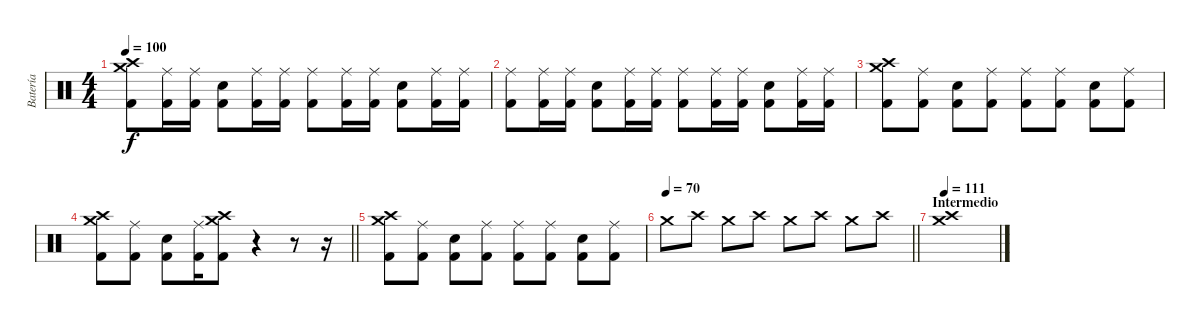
\track ("Batería" "Batería") {instrument percussion}
\staff {score}
\articulation defaults
\ts (4 4)
\tempo 100
\clef neutral
\ks c
("Crash medium (hit)" "Crash high (hit)" "Kick (hit) 2").8{dy f} ("Ride (middle)" "Kick (hit) 2").16 ("Ride (middle)" "Kick (hit) 2").16 ("Electric Snare (hit)" "Kick (hit) 2").8 ("Ride (middle)" "Kick (hit) 2").16 ("Ride (middle)" "Kick (hit) 2").16 ("Ride (middle)" "Kick (hit) 2").8 ("Ride (middle)" "Kick (hit) 2").16 ("Ride (middle)" "Kick (hit) 2").16 ("Electric Snare (hit)" "Kick (hit) 2").8 ("Ride (middle)" "Kick (hit) 2").16 ("Ride (middle)" "Kick (hit) 2").16 |
("Ride (middle)" "Kick (hit) 2").8 ("Ride (middle)" "Kick (hit) 2").16 ("Ride (middle)" "Kick (hit) 2").16 ("Electric Snare (hit)" "Kick (hit) 2").8 ("Ride (middle)" "Kick (hit) 2").16 ("Ride (middle)" "Kick (hit) 2").16 ("Ride (middle)" "Kick (hit) 2").8 ("Ride (middle)" "Kick (hit) 2").16 ("Ride (middle)" "Kick (hit) 2").16 ("Electric Snare (hit)" "Kick (hit) 2").8 ("Ride (middle)" "Kick (hit) 2").16 ("Ride (middle)" "Kick (hit) 2").16 |
("Crash medium (hit)" "Crash high (hit)" "Kick (hit) 2").8 ("Ride (middle)" "Kick (hit) 2").8 ("Electric Snare (hit)" "Kick (hit) 2").8 ("Ride (middle)" "Kick (hit) 2").8 ("Ride (middle)" "Kick (hit) 2").8 ("Ride (middle)" "Kick (hit) 2").8 ("Electric Snare (hit)" "Kick (hit) 2").8 ("Ride (middle)" "Kick (hit) 2").8 |
\barLineRight lightlight
("Crash medium (hit)" "Crash high (hit)" "Kick (hit) 2").8 ("Ride (middle)" "Kick (hit) 2").8 ("Electric Snare (hit)" "Kick (hit) 2").8 ("Ride (middle)" "Kick (hit) 2").16 ("Crash medium (hit)" "Crash high (hit)" "Kick (hit) 2").8 r.4 r.8 r.16 |
("Crash medium (hit)" "Crash high (hit)" "Kick (hit) 2").8 ("Ride (middle)" "Kick (hit) 2").8 ("Electric Snare (hit)" "Kick (hit) 2").8 ("Ride (middle)" "Kick (hit) 2").8 ("Ride (middle)" "Kick (hit) 2").8 ("Ride (middle)" "Kick (hit) 2").8 ("Electric Snare (hit)" "Kick (hit) 2").8 ("Ride (middle)" "Kick (hit) 2").8 |
\tempo 70
\barLineRight lightlight "Crash medium (hit)".8 "Crash high (hit)".8 "Crash medium (hit)".8 "Crash high (hit)".8 "Crash medium (hit)".8 "Crash high (hit)".8 "Crash medium (hit)".8 "Crash high (hit)".8
|
\section ("" "Intermedio")
\tempo 111
("Crash medium (hit)" "Crash high (hit)").1
